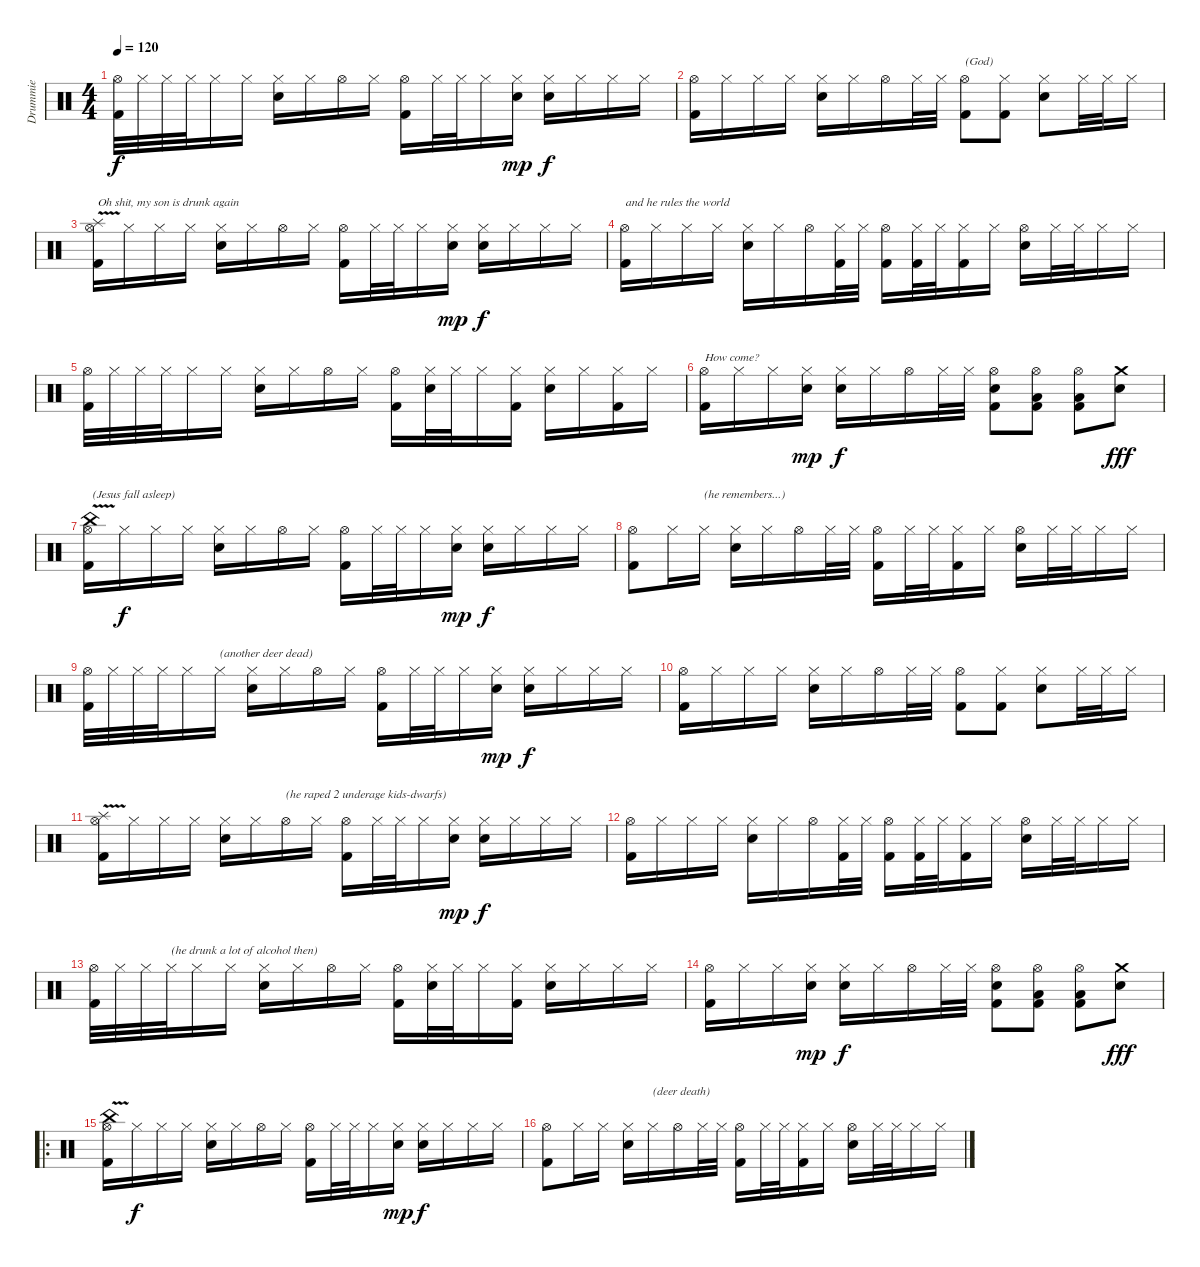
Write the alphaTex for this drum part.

\track ("Drummie" "Drummie") {instrument percussion}
\staff {score}
\articulation defaults
\ts (4 4)
\tempo 120
\clef neutral
\ks c
("Hi-Hat (open)" "Kick (hit) 2").32{dy f} "Hi-Hat (closed)".32 "Hi-Hat (closed)".32 "Hi-Hat (closed)".32 "Hi-Hat (closed)".16 "Hi-Hat (closed)".16 ("Hi-Hat (closed)" "Electric Snare (hit)").16 "Hi-Hat (closed)".16 "Hi-Hat (open)".16 "Hi-Hat (closed)".16 ("Hi-Hat (open)" "Kick (hit) 2").16 "Hi-Hat (closed)".32 "Hi-Hat (closed)".32 "Hi-Hat (closed)".16 ("Hi-Hat (closed)" "Electric Snare (hit)").16{dy mp} ("Hi-Hat (closed)" "Electric Snare (hit)").16{dy f} "Hi-Hat (closed)".16 "Hi-Hat (closed)".16 "Hi-Hat (closed)".16 |
("Hi-Hat (open)" "Kick (hit) 2").16 "Hi-Hat (closed)".16 "Hi-Hat (closed)".16 "Hi-Hat (closed)".16 ("Hi-Hat (closed)" "Electric Snare (hit)").16 "Hi-Hat (closed)".16 "Hi-Hat (open)".16 "Hi-Hat (closed)".32 "Hi-Hat (closed)".32 ("Hi-Hat (open)" "Kick (hit) 2").8{txt "(God)"} ("Hi-Hat (closed)" "Kick (hit) 2").8 ("Hi-Hat (closed)" "Electric Snare (hit)").8 "Hi-Hat (closed)".32 "Hi-Hat (closed)".32 "Hi-Hat (closed)".16 |
("Splash (hit)"{v} "Hi-Hat (open)" "Kick (hit) 2").16{txt "Oh shit, my son is drunk again"} "Hi-Hat (closed)".16 "Hi-Hat (closed)".16 "Hi-Hat (closed)".16 ("Hi-Hat (closed)" "Electric Snare (hit)").16 "Hi-Hat (closed)".16 "Hi-Hat (open)".16 "Hi-Hat (closed)".16 ("Hi-Hat (open)" "Kick (hit) 2").16 "Hi-Hat (closed)".32 "Hi-Hat (closed)".32 "Hi-Hat (closed)".16 ("Hi-Hat (closed)" "Electric Snare (hit)").16{dy mp} ("Hi-Hat (closed)" "Electric Snare (hit)").16{dy f} "Hi-Hat (closed)".16 "Hi-Hat (closed)".16 "Hi-Hat (closed)".16 |
("Hi-Hat (open)" "Kick (hit) 2").16{txt "and he rules the world"} "Hi-Hat (closed)".16 "Hi-Hat (closed)".16 "Hi-Hat (closed)".16 ("Hi-Hat (closed)" "Electric Snare (hit)").16 "Hi-Hat (closed)".16 "Hi-Hat (open)".16 ("Hi-Hat (closed)" "Kick (hit) 2").32 "Hi-Hat (closed)".32 ("Hi-Hat (open)" "Kick (hit) 2").16 ("Hi-Hat (closed)" "Kick (hit) 2").32 "Hi-Hat (closed)".32 ("Hi-Hat (closed)" "Kick (hit) 2").16 "Hi-Hat (closed)".16 ("Hi-Hat (open)" "Electric Snare (hit)").16 "Hi-Hat (closed)".32 "Hi-Hat (closed)".32 "Hi-Hat (closed)".16 "Hi-Hat (closed)".16 |
("Hi-Hat (open)" "Kick (hit) 2").32 "Hi-Hat (closed)".32 "Hi-Hat (closed)".32 "Hi-Hat (closed)".32 "Hi-Hat (closed)".16 "Hi-Hat (closed)".16 ("Hi-Hat (closed)" "Electric Snare (hit)").16 "Hi-Hat (closed)".16 "Hi-Hat (open)".16 "Hi-Hat (closed)".16 ("Hi-Hat (open)" "Kick (hit) 2").16 ("Hi-Hat (closed)" "Electric Snare (hit)").32 "Hi-Hat (closed)".32 "Hi-Hat (closed)".16 ("Hi-Hat (closed)" "Kick (hit) 2").16 ("Hi-Hat (closed)" "Electric Snare (hit)").16 "Hi-Hat (closed)".16 ("Hi-Hat (closed)" "Kick (hit) 2").16 "Hi-Hat (closed)".16 |
("Hi-Hat (open)" "Kick (hit) 2").16{txt "How come?"} "Hi-Hat (closed)".16 "Hi-Hat (closed)".16 ("Hi-Hat (closed)" "Electric Snare (hit)").16{dy mp} ("Hi-Hat (closed)" "Electric Snare (hit)").16{dy f} "Hi-Hat (closed)".16 "Hi-Hat (open)".16 "Hi-Hat (closed)".32 "Hi-Hat (closed)".32 ("Hi-Hat (open)" "Electric Snare (hit)" "Kick (hit) 2").8 ("Hi-Hat (open)" "Low Tom (hit)" "Kick (hit) 2").8 ("Hi-Hat (open)" "Low Tom (hit)" "Kick (hit) 2").8 ("Crash medium (hit)" "Electric Snare (hit)").8{dy fff} |
("China (hit)"{v} "Hi-Hat (open)" "Kick (hit) 2").16{txt "(Jesus fall asleep)"} "Hi-Hat (closed)".16{dy f} "Hi-Hat (closed)".16 "Hi-Hat (closed)".16 ("Hi-Hat (closed)" "Electric Snare (hit)").16 "Hi-Hat (closed)".16 "Hi-Hat (open)".16 "Hi-Hat (closed)".16 ("Hi-Hat (open)" "Kick (hit) 2").16 "Hi-Hat (closed)".32 "Hi-Hat (closed)".32 "Hi-Hat (closed)".16 ("Hi-Hat (closed)" "Electric Snare (hit)").16{dy mp} ("Hi-Hat (closed)" "Electric Snare (hit)").16{dy f} "Hi-Hat (closed)".16 "Hi-Hat (closed)".16 "Hi-Hat (closed)".16 |
("Hi-Hat (open)" "Kick (hit) 2").8 "Hi-Hat (closed)".16 "Hi-Hat (closed)".16{txt "(he remembers...)"} ("Hi-Hat (closed)" "Electric Snare (hit)").16 "Hi-Hat (closed)".16 "Hi-Hat (open)".16 "Hi-Hat (closed)".32 "Hi-Hat (closed)".32 ("Hi-Hat (open)" "Kick (hit) 2").16 "Hi-Hat (closed)".32 "Hi-Hat (closed)".32 ("Hi-Hat (closed)" "Kick (hit) 2").16 "Hi-Hat (closed)".16 ("Hi-Hat (open)" "Electric Snare (hit)").16 "Hi-Hat (closed)".32 "Hi-Hat (closed)".32 "Hi-Hat (closed)".16 "Hi-Hat (closed)".16 |
("Hi-Hat (open)" "Kick (hit) 2").32 "Hi-Hat (closed)".32 "Hi-Hat (closed)".32 "Hi-Hat (closed)".32 "Hi-Hat (closed)".16 "Hi-Hat (closed)".16{txt "(another deer dead)"} ("Hi-Hat (closed)" "Electric Snare (hit)").16 "Hi-Hat (closed)".16 "Hi-Hat (open)".16 "Hi-Hat (closed)".16 ("Hi-Hat (open)" "Kick (hit) 2").16 "Hi-Hat (closed)".32 "Hi-Hat (closed)".32 "Hi-Hat (closed)".16 ("Hi-Hat (closed)" "Electric Snare (hit)").16{dy mp} ("Hi-Hat (closed)" "Electric Snare (hit)").16{dy f} "Hi-Hat (closed)".16 "Hi-Hat (closed)".16 "Hi-Hat (closed)".16 |
("Hi-Hat (open)" "Kick (hit) 2").16 "Hi-Hat (closed)".16 "Hi-Hat (closed)".16 "Hi-Hat (closed)".16 ("Hi-Hat (closed)" "Electric Snare (hit)").16 "Hi-Hat (closed)".16 "Hi-Hat (open)".16 "Hi-Hat (closed)".32 "Hi-Hat (closed)".32 ("Hi-Hat (open)" "Kick (hit) 2").8 ("Hi-Hat (closed)" "Kick (hit) 2").8 ("Hi-Hat (closed)" "Electric Snare (hit)").8 "Hi-Hat (closed)".32 "Hi-Hat (closed)".32 "Hi-Hat (closed)".16 |
("Splash (hit)"{v} "Hi-Hat (open)" "Kick (hit) 2").16 "Hi-Hat (closed)".16 "Hi-Hat (closed)".16 "Hi-Hat (closed)".16 ("Hi-Hat (closed)" "Electric Snare (hit)").16 "Hi-Hat (closed)".16 "Hi-Hat (open)".16{txt "(he raped 2 underage kids-dwarfs)"} "Hi-Hat (closed)".16 ("Hi-Hat (open)" "Kick (hit) 2").16 "Hi-Hat (closed)".32 "Hi-Hat (closed)".32 "Hi-Hat (closed)".16 ("Hi-Hat (closed)" "Electric Snare (hit)").16{dy mp} ("Hi-Hat (closed)" "Electric Snare (hit)").16{dy f} "Hi-Hat (closed)".16 "Hi-Hat (closed)".16 "Hi-Hat (closed)".16 |
("Hi-Hat (open)" "Kick (hit) 2").16 "Hi-Hat (closed)".16 "Hi-Hat (closed)".16 "Hi-Hat (closed)".16 ("Hi-Hat (closed)" "Electric Snare (hit)").16 "Hi-Hat (closed)".16 "Hi-Hat (open)".16 ("Hi-Hat (closed)" "Kick (hit) 2").32 "Hi-Hat (closed)".32 ("Hi-Hat (open)" "Kick (hit) 2").16 ("Hi-Hat (closed)" "Kick (hit) 2").32 "Hi-Hat (closed)".32 ("Hi-Hat (closed)" "Kick (hit) 2").16 "Hi-Hat (closed)".16 ("Hi-Hat (open)" "Electric Snare (hit)").16 "Hi-Hat (closed)".32 "Hi-Hat (closed)".32 "Hi-Hat (closed)".16 "Hi-Hat (closed)".16 |
("Hi-Hat (open)" "Kick (hit) 2").32 "Hi-Hat (closed)".32 "Hi-Hat (closed)".32 "Hi-Hat (closed)".32{txt "(he drunk a lot of alcohol then)"} "Hi-Hat (closed)".16 "Hi-Hat (closed)".16 ("Hi-Hat (closed)" "Electric Snare (hit)").16 "Hi-Hat (closed)".16 "Hi-Hat (open)".16 "Hi-Hat (closed)".16 ("Hi-Hat (open)" "Kick (hit) 2").16 ("Hi-Hat (closed)" "Electric Snare (hit)").32 "Hi-Hat (closed)".32 "Hi-Hat (closed)".16 ("Hi-Hat (closed)" "Kick (hit) 2").16 ("Hi-Hat (closed)" "Electric Snare (hit)").16 "Hi-Hat (closed)".16 "Hi-Hat (closed)".16 "Hi-Hat (closed)".16 |
("Hi-Hat (open)" "Kick (hit) 2").16 "Hi-Hat (closed)".16 "Hi-Hat (closed)".16 ("Hi-Hat (closed)" "Electric Snare (hit)").16{dy mp} ("Hi-Hat (closed)" "Electric Snare (hit)").16{dy f} "Hi-Hat (closed)".16 "Hi-Hat (open)".16 "Hi-Hat (closed)".32 "Hi-Hat (closed)".32 ("Hi-Hat (open)" "Electric Snare (hit)" "Kick (hit) 2").8 ("Hi-Hat (open)" "Low Tom (hit)" "Kick (hit) 2").8 ("Hi-Hat (open)" "Low Tom (hit)" "Kick (hit) 2").8 ("Crash medium (hit)" "Electric Snare (hit)").8{dy fff} |
\ro
("China (hit)"{v} "Hi-Hat (open)" "Kick (hit) 2").16 "Hi-Hat (closed)".16{dy f} "Hi-Hat (closed)".16 "Hi-Hat (closed)".16 ("Hi-Hat (closed)" "Electric Snare (hit)").16 "Hi-Hat (closed)".16 "Hi-Hat (open)".16 "Hi-Hat (closed)".16 ("Hi-Hat (open)" "Kick (hit) 2").16 "Hi-Hat (closed)".32 "Hi-Hat (closed)".32 "Hi-Hat (closed)".16 ("Hi-Hat (closed)" "Electric Snare (hit)").16{dy mp} ("Hi-Hat (closed)" "Electric Snare (hit)").16{dy f} "Hi-Hat (closed)".16 "Hi-Hat (closed)".16 "Hi-Hat (closed)".16 |
("Hi-Hat (open)" "Kick (hit) 2").8 "Hi-Hat (closed)".16 "Hi-Hat (closed)".16 ("Hi-Hat (closed)" "Electric Snare (hit)").16 "Hi-Hat (closed)".16{txt "(deer death)"} "Hi-Hat (open)".16 "Hi-Hat (closed)".32 "Hi-Hat (closed)".32 ("Hi-Hat (open)" "Kick (hit) 2").16 "Hi-Hat (closed)".32 "Hi-Hat (closed)".32 ("Hi-Hat (closed)" "Kick (hit) 2").16 "Hi-Hat (closed)".16 ("Hi-Hat (open)" "Electric Snare (hit)").16 "Hi-Hat (closed)".32 "Hi-Hat (closed)".32 "Hi-Hat (closed)".16 "Hi-Hat (closed)".16
